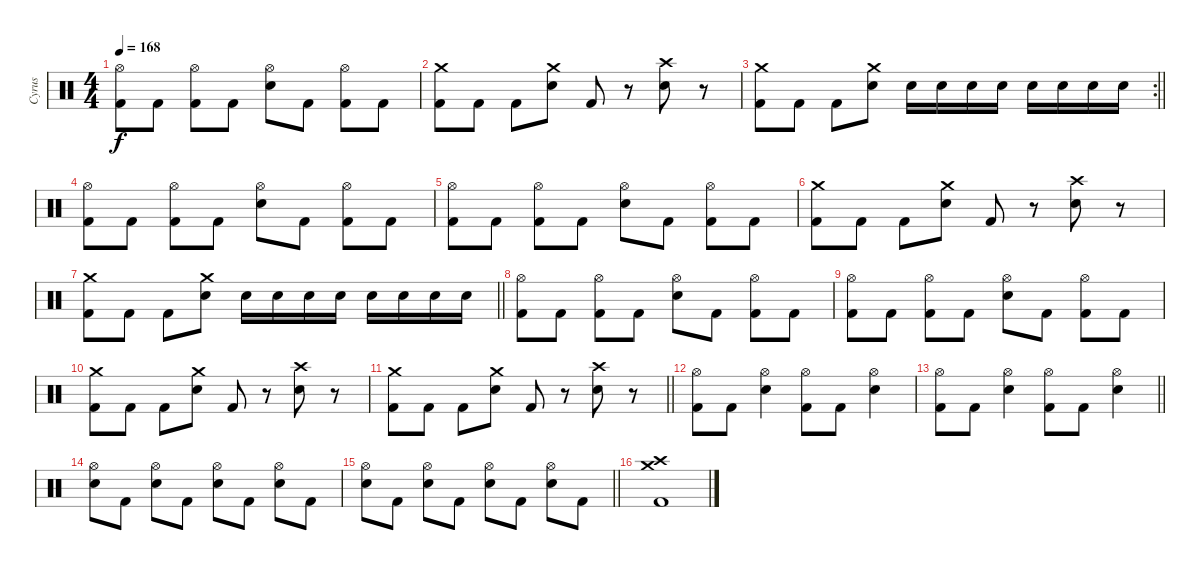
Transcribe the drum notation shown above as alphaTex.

\track ("Cyrus" "Cyrus") {instrument percussion}
\staff {score}
\articulation defaults
\ts (4 4)
\tempo 168
\clef neutral
\ks c
("Hi-Hat (open)" "Kick (hit) 2").8{dy f} "Kick (hit) 2".8 ("Hi-Hat (open)" "Kick (hit) 2").8 "Kick (hit) 2".8 ("Hi-Hat (open)" "Snare (hit) 2").8 "Kick (hit) 2".8 ("Hi-Hat (open)" "Kick (hit) 2").8 "Kick (hit) 2".8 |
("Crash medium (hit)" "Kick (hit) 2").8 "Kick (hit) 2".8 "Kick (hit) 2".8 ("Crash medium (hit)" "Snare (hit) 2").8 "Kick (hit) 2".8 r.8 ("Crash high (hit)" "Snare (hit) 2").8 r.8 |
\rc 2
\barLineRight lightlight
("Crash medium (hit)" "Kick (hit) 2").8 "Kick (hit) 2".8 "Kick (hit) 2".8 ("Crash medium (hit)" "Snare (hit) 2").8 "Snare (hit) 2".16 "Snare (hit) 2".16 "Snare (hit) 2".16 "Snare (hit) 2".16 "Snare (hit) 2".16 "Snare (hit) 2".16 "Snare (hit) 2".16 "Snare (hit) 2".16 |
("Hi-Hat (open)" "Kick (hit) 2").8 "Kick (hit) 2".8 ("Hi-Hat (open)" "Kick (hit) 2").8 "Kick (hit) 2".8 ("Hi-Hat (open)" "Snare (hit) 2").8 "Kick (hit) 2".8 ("Hi-Hat (open)" "Kick (hit) 2").8 "Kick (hit) 2".8 |
("Hi-Hat (open)" "Kick (hit) 2").8 "Kick (hit) 2".8 ("Hi-Hat (open)" "Kick (hit) 2").8 "Kick (hit) 2".8 ("Hi-Hat (open)" "Snare (hit) 2").8 "Kick (hit) 2".8 ("Hi-Hat (open)" "Kick (hit) 2").8 "Kick (hit) 2".8 |
("Crash medium (hit)" "Kick (hit) 2").8 "Kick (hit) 2".8 "Kick (hit) 2".8 ("Crash medium (hit)" "Snare (hit) 2").8 "Kick (hit) 2".8 r.8 ("Crash high (hit)" "Snare (hit) 2").8 r.8 |
\barLineRight lightlight
("Crash medium (hit)" "Kick (hit) 2").8 "Kick (hit) 2".8 "Kick (hit) 2".8 ("Crash medium (hit)" "Snare (hit) 2").8 "Snare (hit) 2".16 "Snare (hit) 2".16 "Snare (hit) 2".16 "Snare (hit) 2".16 "Snare (hit) 2".16 "Snare (hit) 2".16 "Snare (hit) 2".16 "Snare (hit) 2".16 |
("Hi-Hat (open)" "Kick (hit) 2").8 "Kick (hit) 2".8 ("Hi-Hat (open)" "Kick (hit) 2").8 "Kick (hit) 2".8 ("Hi-Hat (open)" "Snare (hit) 2").8 "Kick (hit) 2".8 ("Hi-Hat (open)" "Kick (hit) 2").8 "Kick (hit) 2".8 |
("Hi-Hat (open)" "Kick (hit) 2").8 "Kick (hit) 2".8 ("Hi-Hat (open)" "Kick (hit) 2").8 "Kick (hit) 2".8 ("Hi-Hat (open)" "Snare (hit) 2").8 "Kick (hit) 2".8 ("Hi-Hat (open)" "Kick (hit) 2").8 "Kick (hit) 2".8 |
("Crash medium (hit)" "Kick (hit) 2").8 "Kick (hit) 2".8 "Kick (hit) 2".8 ("Crash medium (hit)" "Snare (hit) 2").8 "Kick (hit) 2".8 r.8 ("Crash high (hit)" "Snare (hit) 2").8 r.8 |
\barLineRight lightlight
("Crash medium (hit)" "Kick (hit) 2").8 "Kick (hit) 2".8 "Kick (hit) 2".8 ("Crash medium (hit)" "Snare (hit) 2").8 "Kick (hit) 2".8 r.8 ("Crash high (hit)" "Snare (hit) 2").8 r.8 |
("Hi-Hat (open)" "Kick (hit) 2").8 "Kick (hit) 2".8 ("Hi-Hat (open)" "Snare (hit) 2").4 ("Hi-Hat (open)" "Kick (hit) 2").8 "Kick (hit) 2".8 ("Hi-Hat (open)" "Snare (hit) 2").4 |
\barLineRight lightlight
("Hi-Hat (open)" "Kick (hit) 2").8 "Kick (hit) 2".8 ("Hi-Hat (open)" "Snare (hit) 2").4 ("Hi-Hat (open)" "Kick (hit) 2").8 "Kick (hit) 2".8 ("Hi-Hat (open)" "Snare (hit) 2").4 |
("Hi-Hat (open)" "Snare (hit) 2").8 "Kick (hit) 2".8 ("Hi-Hat (open)" "Snare (hit) 2").8 "Kick (hit) 2".8 ("Hi-Hat (open)" "Snare (hit) 2").8 "Kick (hit) 2".8 ("Hi-Hat (open)" "Snare (hit) 2").8 "Kick (hit) 2".8 |
\barLineRight lightlight
("Hi-Hat (open)" "Snare (hit) 2").8 "Kick (hit) 2".8 ("Hi-Hat (open)" "Snare (hit) 2").8 "Kick (hit) 2".8 ("Hi-Hat (open)" "Snare (hit) 2").8 "Kick (hit) 2".8 ("Hi-Hat (open)" "Snare (hit) 2").8 "Kick (hit) 2".8 |
("Crash high (hit)" "Crash medium (hit)" "Kick (hit) 2").1
